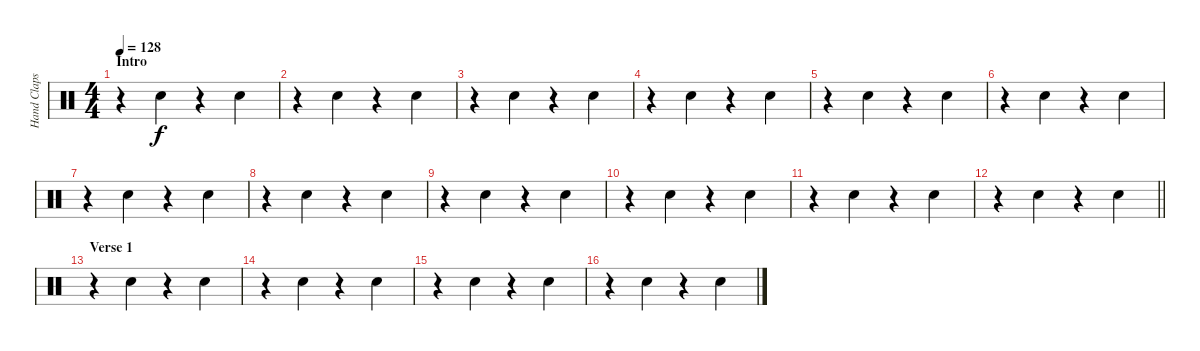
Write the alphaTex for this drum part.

\track ("Hand Claps" "Hand Claps") {instrument percussion}
\staff {score}
\articulation defaults
\ts (4 4)
\section ("" "Intro")
\tempo 128
\clef neutral
\ks c
r.4{dy f} "Hand Clap (hit)".4 r.4 "Hand Clap (hit)".4 |
r.4 "Hand Clap (hit)".4 r.4 "Hand Clap (hit)".4 |
r.4 "Hand Clap (hit)".4 r.4 "Hand Clap (hit)".4 |
r.4 "Hand Clap (hit)".4 r.4 "Hand Clap (hit)".4 |
r.4 "Hand Clap (hit)".4 r.4 "Hand Clap (hit)".4 |
r.4 "Hand Clap (hit)".4 r.4 "Hand Clap (hit)".4 |
r.4 "Hand Clap (hit)".4 r.4 "Hand Clap (hit)".4 |
r.4 "Hand Clap (hit)".4 r.4 "Hand Clap (hit)".4 |
r.4 "Hand Clap (hit)".4 r.4 "Hand Clap (hit)".4 |
r.4 "Hand Clap (hit)".4 r.4 "Hand Clap (hit)".4 |
r.4 "Hand Clap (hit)".4 r.4 "Hand Clap (hit)".4 |
\barLineRight lightlight
r.4 "Hand Clap (hit)".4 r.4 "Hand Clap (hit)".4 |
\section ("" "Verse 1")
r.4 "Hand Clap (hit)".4 r.4 "Hand Clap (hit)".4 |
r.4 "Hand Clap (hit)".4 r.4 "Hand Clap (hit)".4 |
r.4 "Hand Clap (hit)".4 r.4 "Hand Clap (hit)".4 |
r.4 "Hand Clap (hit)".4 r.4 "Hand Clap (hit)".4
